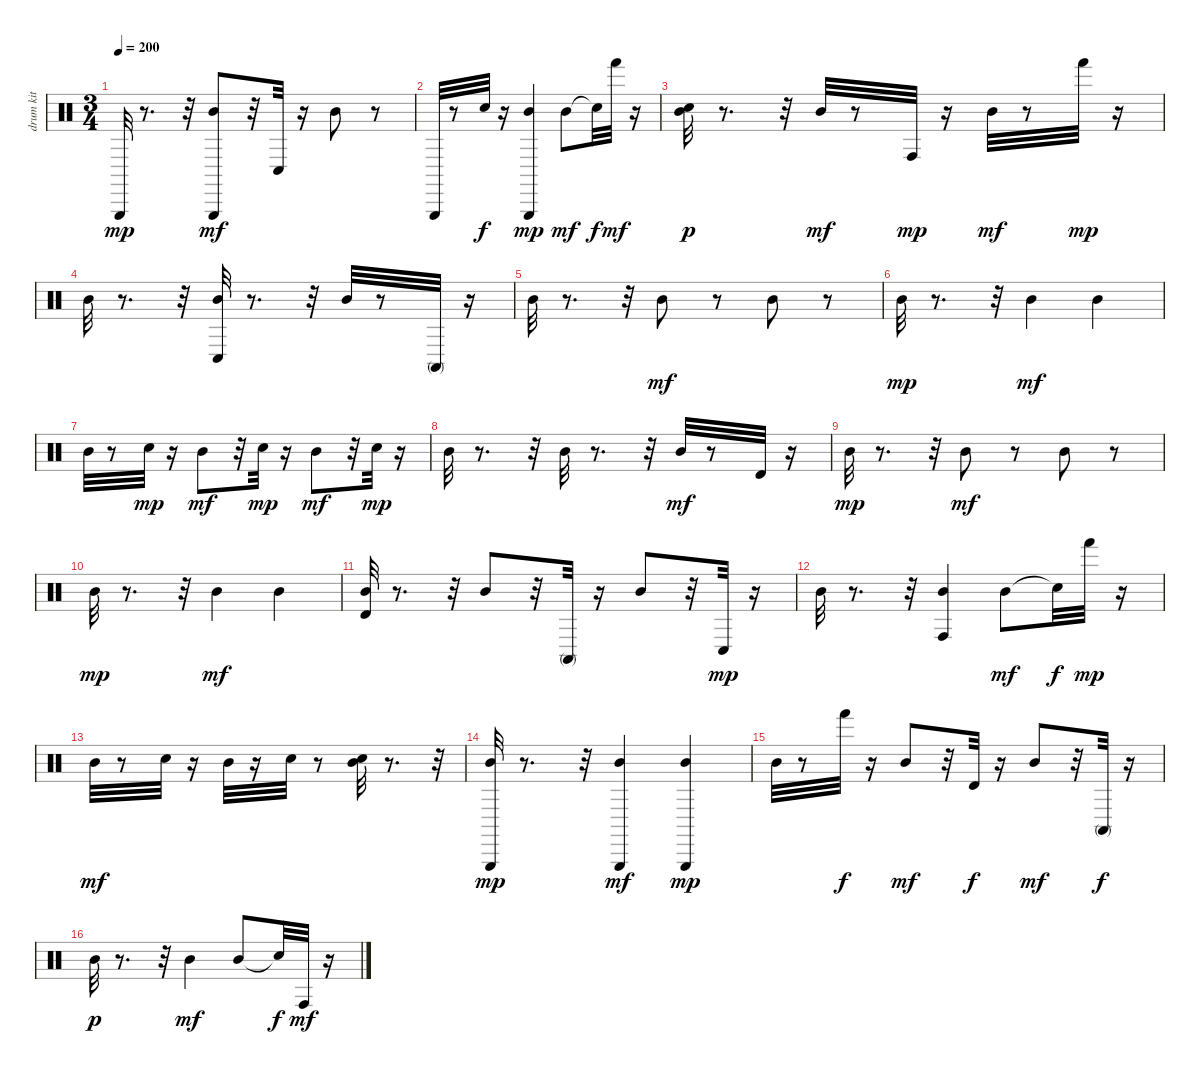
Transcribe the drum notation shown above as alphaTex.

\track (" drum kit (hi-hat/cymbals)" " drum kit ") {instrument percussion}
\staff {score}
\articulation defaults
\ts (3 4)
\tempo 200
\clef neutral
\ks c "Triangle (hit)".32{dy mp}
r.8{d} r.32 ("Mid Tom (hit)" "Triangle (hit)").8{dy mf} r.32 "Conga low (hit)".32 r.16 "Mid Tom (hit)".8 r.8 |
"Triangle (hit)".32 r.8 "Snare (hit)".32{dy f} r.16 ("Mid Tom (hit)" "Triangle (hit)").4{dy mp} "Mid Tom (hit)".8{dy mf} "Snare (hit)"{t}.32{dy f} "Hand (hit)".32{dy mf} r.16 |
("Mid Tom (hit)" "Snare (hit)").32{dy p} r.8{d} r.32 "Mid Tom (hit)".32{dy mf} r.8 "Conga high (hit)".32{dy mp} r.16 "Mid Tom (hit)".32{dy mf} r.8 "Hand (hit)".32{dy mp} r.16 |
"Mid Tom (hit)".32 r.8{d} r.32 ("Mid Tom (hit)" "Conga low (hit)").32 r.8{d} r.32 "Mid Tom (hit)".32 r.8 "Conga high (mute)".32 r.16 |
"Mid Tom (hit)".32 r.8{d} r.32 "Mid Tom (hit)".8{dy mf} r.8 "Mid Tom (hit)".8 r.8 |
"Mid Tom (hit)".32{dy mp} r.8{d} r.32 "Mid Tom (hit)".4{dy mf} "Mid Tom (hit)".4 |
"Mid Tom (hit)".32 r.8 "Snare (hit)".32{dy mp} r.16 "Mid Tom (hit)".8{dy mf} r.32 "Snare (hit)".32{dy mp} r.16 "Mid Tom (hit)".8{dy mf} r.32 "Snare (hit)".32{dy mp} r.16 |
"Mid Tom (hit)".32 r.8{d} r.32 "Mid Tom (hit)".32 r.8{d} r.32 "Mid Tom (hit)".32{dy mf} r.8 "Timbale high (hit)".32 r.16 |
"Mid Tom (hit)".32{dy mp} r.8{d} r.32 "Mid Tom (hit)".8{dy mf} r.8 "Mid Tom (hit)".8 r.8 |
"Mid Tom (hit)".32{dy mp} r.8{d} r.32 "Mid Tom (hit)".4{dy mf} "Mid Tom (hit)".4 |
("Mid Tom (hit)" "Timbale high (hit)").32 r.8{d} r.32 "Mid Tom (hit)".8 r.32 "Conga high (mute)".32 r.16 "Mid Tom (hit)".8 r.32 "Conga low (hit)".32{dy mp} r.16 |
"Mid Tom (hit)".32 r.8{d} r.32 ("Mid Tom (hit)" "Conga high (hit)").4 "Mid Tom (hit)".8{dy mf} "Snare (hit)"{t}.32{dy f} "Hand (hit)".32{dy mp} r.16 |
"Mid Tom (hit)".32{dy mf} r.8 "Snare (hit)".32 r.16 "Mid Tom (hit)".32 r.16 "Snare (hit)".32 r.8 ("Mid Tom (hit)" "Snare (hit)").32 r.8{d} r.32 |
("Mid Tom (hit)" "Triangle (hit)").32{dy mp} r.8{d} r.32 ("Mid Tom (hit)" "Triangle (hit)").4{dy mf} ("Mid Tom (hit)" "Triangle (hit)").4{dy mp} |
"Mid Tom (hit)".32 r.8 "Hand (hit)".32{dy f} r.16 "Mid Tom (hit)".8{dy mf} r.32 "Timbale high (hit)".32{dy f} r.16 "Mid Tom (hit)".8{dy mf} r.32 "Conga high (mute)".32{dy f} r.16 |
"Mid Tom (hit)".32{dy p} r.8{d} r.32 "Mid Tom (hit)".4{dy mf} "Mid Tom (hit)".8 "Snare (hit)"{t}.32{dy f} "Conga high (hit)".32{dy mf} r.16
